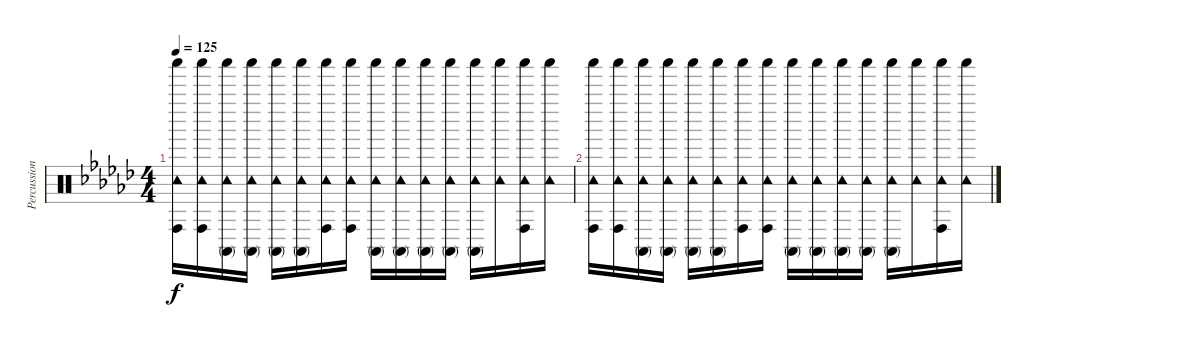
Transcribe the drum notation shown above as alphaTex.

\track ("Percussion" "Percussion") {instrument percussion}
\staff {score}
\articulation defaults
\ts (4 4)
\tempo 125
\clef neutral
\ks gb
("Shaker (hit)" "Tambourine (hit)" "Conga high (hit)").16{dy f} ("Shaker (hit)" "Tambourine (hit)" "Conga high (hit)").16 ("Shaker (hit)" "Tambourine (hit)" "Conga high (mute)").16 ("Shaker (hit)" "Tambourine (hit)" "Conga high (mute)").16 ("Shaker (hit)" "Tambourine (hit)" "Conga high (mute)").16 ("Shaker (hit)" "Tambourine (hit)" "Conga high (mute)").16 ("Shaker (hit)" "Tambourine (hit)" "Conga high (hit)").16 ("Shaker (hit)" "Tambourine (hit)" "Conga high (hit)").16 ("Shaker (hit)" "Tambourine (hit)" "Conga high (mute)").16 ("Shaker (hit)" "Tambourine (hit)" "Conga high (mute)").16 ("Shaker (hit)" "Tambourine (hit)" "Conga high (mute)").16 ("Shaker (hit)" "Tambourine (hit)" "Conga high (mute)").16 ("Shaker (hit)" "Tambourine (hit)" "Conga high (mute)").16 ("Shaker (hit)" "Tambourine (hit)").16 ("Shaker (hit)" "Tambourine (hit)" "Conga high (hit)").16 ("Shaker (hit)" "Tambourine (hit)").16 |
("Shaker (hit)" "Tambourine (hit)" "Conga high (hit)").16 ("Shaker (hit)" "Tambourine (hit)" "Conga high (hit)").16 ("Shaker (hit)" "Tambourine (hit)" "Conga high (mute)").16 ("Shaker (hit)" "Tambourine (hit)" "Conga high (mute)").16 ("Shaker (hit)" "Tambourine (hit)" "Conga high (mute)").16 ("Shaker (hit)" "Tambourine (hit)" "Conga high (mute)").16 ("Shaker (hit)" "Tambourine (hit)" "Conga high (hit)").16 ("Shaker (hit)" "Tambourine (hit)" "Conga high (hit)").16 ("Shaker (hit)" "Tambourine (hit)" "Conga high (mute)").16 ("Shaker (hit)" "Tambourine (hit)" "Conga high (mute)").16 ("Shaker (hit)" "Tambourine (hit)" "Conga high (mute)").16 ("Shaker (hit)" "Tambourine (hit)" "Conga high (mute)").16 ("Shaker (hit)" "Tambourine (hit)" "Conga high (mute)").16 ("Shaker (hit)" "Tambourine (hit)").16 ("Shaker (hit)" "Tambourine (hit)" "Conga high (hit)").16 ("Shaker (hit)" "Tambourine (hit)").16
